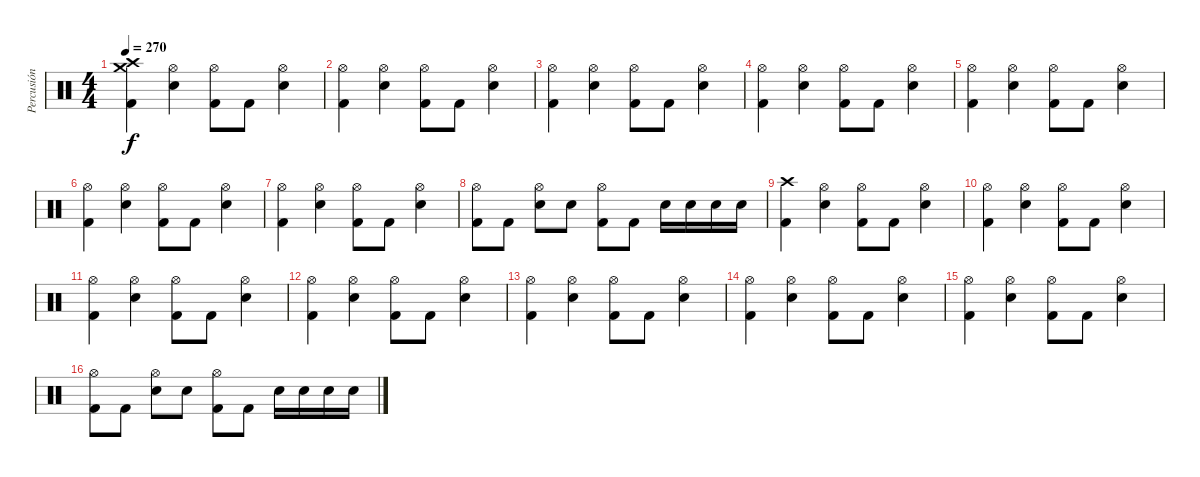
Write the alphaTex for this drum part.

\track ("Percusión" "Percusión") {instrument percussion}
\staff {score}
\articulation defaults
\ts (4 4)
\tempo 270
\clef neutral
\ks c
("Crash medium (hit)" "Crash high (hit)" "Kick (hit) 2").4{dy f} ("Hi-Hat (open)" "Electric Snare (hit)").4 ("Hi-Hat (open)" "Kick (hit) 2").8 "Kick (hit) 2".8 ("Hi-Hat (open)" "Electric Snare (hit)").4 |
("Hi-Hat (open)" "Kick (hit) 2").4 ("Hi-Hat (open)" "Electric Snare (hit)").4 ("Hi-Hat (open)" "Kick (hit) 2").8 "Kick (hit) 2".8 ("Hi-Hat (open)" "Electric Snare (hit)").4 |
("Hi-Hat (open)" "Kick (hit) 2").4 ("Hi-Hat (open)" "Electric Snare (hit)").4 ("Hi-Hat (open)" "Kick (hit) 2").8 "Kick (hit) 2".8 ("Hi-Hat (open)" "Electric Snare (hit)").4 |
("Hi-Hat (open)" "Kick (hit) 2").4 ("Hi-Hat (open)" "Electric Snare (hit)").4 ("Hi-Hat (open)" "Kick (hit) 2").8 "Kick (hit) 2".8 ("Hi-Hat (open)" "Electric Snare (hit)").4 |
("Hi-Hat (open)" "Kick (hit) 2").4 ("Hi-Hat (open)" "Electric Snare (hit)").4 ("Hi-Hat (open)" "Kick (hit) 2").8 "Kick (hit) 2".8 ("Hi-Hat (open)" "Electric Snare (hit)").4 |
("Hi-Hat (open)" "Kick (hit) 2").4 ("Hi-Hat (open)" "Electric Snare (hit)").4 ("Hi-Hat (open)" "Kick (hit) 2").8 "Kick (hit) 2".8 ("Hi-Hat (open)" "Electric Snare (hit)").4 |
("Hi-Hat (open)" "Kick (hit) 2").4 ("Hi-Hat (open)" "Electric Snare (hit)").4 ("Hi-Hat (open)" "Kick (hit) 2").8 "Kick (hit) 2".8 ("Hi-Hat (open)" "Electric Snare (hit)").4 |
("Hi-Hat (open)" "Kick (hit) 2").8 "Kick (hit) 2".8 ("Hi-Hat (open)" "Electric Snare (hit)").8 "Electric Snare (hit)".8 ("Hi-Hat (open)" "Kick (hit) 2").8 "Kick (hit) 2".8 "Electric Snare (hit)".16 "Electric Snare (hit)".16 "Electric Snare (hit)".16 "Electric Snare (hit)".16 |
("Crash high (hit)" "Kick (hit) 2").4 ("Hi-Hat (open)" "Electric Snare (hit)").4 ("Hi-Hat (open)" "Kick (hit) 2").8 "Kick (hit) 2".8 ("Hi-Hat (open)" "Electric Snare (hit)").4 |
("Hi-Hat (open)" "Kick (hit) 2").4 ("Hi-Hat (open)" "Electric Snare (hit)").4 ("Hi-Hat (open)" "Kick (hit) 2").8 "Kick (hit) 2".8 ("Hi-Hat (open)" "Electric Snare (hit)").4 |
("Hi-Hat (open)" "Kick (hit) 2").4 ("Hi-Hat (open)" "Electric Snare (hit)").4 ("Hi-Hat (open)" "Kick (hit) 2").8 "Kick (hit) 2".8 ("Hi-Hat (open)" "Electric Snare (hit)").4 |
("Hi-Hat (open)" "Kick (hit) 2").4 ("Hi-Hat (open)" "Electric Snare (hit)").4 ("Hi-Hat (open)" "Kick (hit) 2").8 "Kick (hit) 2".8 ("Hi-Hat (open)" "Electric Snare (hit)").4 |
("Hi-Hat (open)" "Kick (hit) 2").4 ("Hi-Hat (open)" "Electric Snare (hit)").4 ("Hi-Hat (open)" "Kick (hit) 2").8 "Kick (hit) 2".8 ("Hi-Hat (open)" "Electric Snare (hit)").4 |
("Hi-Hat (open)" "Kick (hit) 2").4 ("Hi-Hat (open)" "Electric Snare (hit)").4 ("Hi-Hat (open)" "Kick (hit) 2").8 "Kick (hit) 2".8 ("Hi-Hat (open)" "Electric Snare (hit)").4 |
("Hi-Hat (open)" "Kick (hit) 2").4 ("Hi-Hat (open)" "Electric Snare (hit)").4 ("Hi-Hat (open)" "Kick (hit) 2").8 "Kick (hit) 2".8 ("Hi-Hat (open)" "Electric Snare (hit)").4 |
("Hi-Hat (open)" "Kick (hit) 2").8 "Kick (hit) 2".8 ("Hi-Hat (open)" "Electric Snare (hit)").8 "Electric Snare (hit)".8 ("Hi-Hat (open)" "Kick (hit) 2").8 "Kick (hit) 2".8 "Electric Snare (hit)".16 "Electric Snare (hit)".16 "Electric Snare (hit)".16 "Electric Snare (hit)".16
